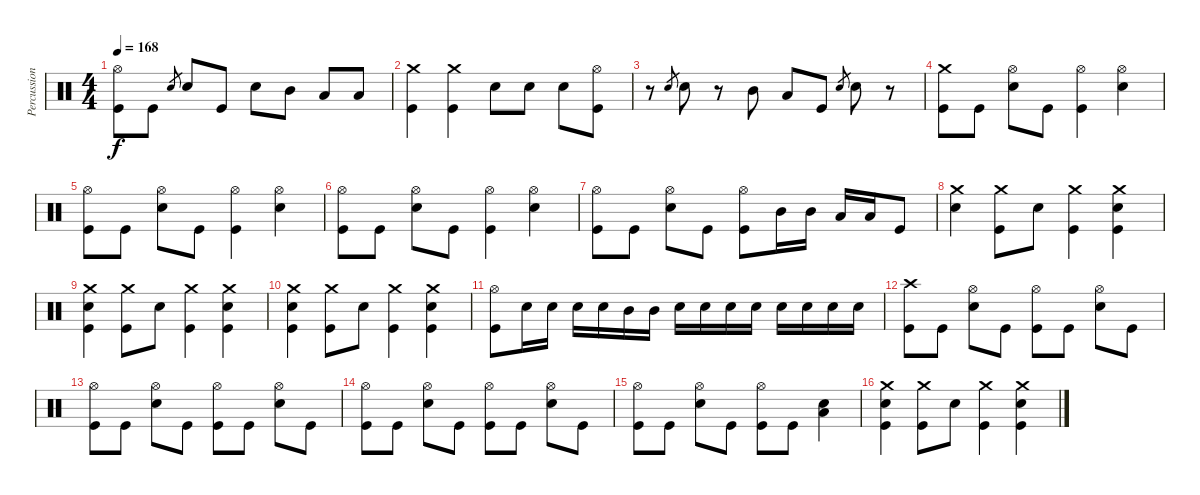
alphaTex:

\track ("Percussion" "Percussion") {instrument percussion}
\staff {score}
\articulation defaults
\ts (4 4)
\tempo 168
\clef neutral
\ks c
("Hi-Hat (open)" "Kick (hit)").8{dy f} "Kick (hit)".8 "Electric Snare (hit)".8{gr} "Electric Snare (hit)".8 "Kick (hit)".8 "Electric Snare (hit)".8 "Mid Tom (hit)".8 "Low Tom (hit)".8 "Low Tom (hit)".8 |
("Crash medium (hit)" "Kick (hit)").4 ("Crash medium (hit)" "Kick (hit)").4 "Electric Snare (hit)".8 "Electric Snare (hit)".8 "Electric Snare (hit)".8 ("Hi-Hat (open)" "Kick (hit)").8 |
r.8 "Electric Snare (hit)".8{gr} "Electric Snare (hit)".8 r.8 "Mid Tom (hit)".8 "Low Tom (hit)".8 "Kick (hit)".8 "Electric Snare (hit)".8{gr} "Electric Snare (hit)".8 r.8 |
("Crash medium (hit)" "Kick (hit)").8 "Kick (hit)".8 ("Hi-Hat (open)" "Electric Snare (hit)").8 "Kick (hit)".8 ("Hi-Hat (open)" "Kick (hit)").4 ("Hi-Hat (open)" "Electric Snare (hit)").4 |
("Hi-Hat (open)" "Kick (hit)").8 "Kick (hit)".8 ("Hi-Hat (open)" "Electric Snare (hit)").8 "Kick (hit)".8 ("Hi-Hat (open)" "Kick (hit)").4 ("Hi-Hat (open)" "Electric Snare (hit)").4 |
("Hi-Hat (open)" "Kick (hit)").8 "Kick (hit)".8 ("Hi-Hat (open)" "Electric Snare (hit)").8 "Kick (hit)".8 ("Hi-Hat (open)" "Kick (hit)").4 ("Hi-Hat (open)" "Electric Snare (hit)").4 |
("Hi-Hat (open)" "Kick (hit)").8 "Kick (hit)".8 ("Hi-Hat (open)" "Electric Snare (hit)").8 "Kick (hit)".8 ("Hi-Hat (open)" "Kick (hit)").8 "Mid Tom (hit)".16 "Mid Tom (hit)".16 "Low Tom (hit)".16 "Low Tom (hit)".16 "Kick (hit)".8 |
("Crash medium (hit)" "Electric Snare (hit)").4 ("Crash medium (hit)" "Kick (hit)").8 "Electric Snare (hit)".8 ("Crash medium (hit)" "Kick (hit)").4 ("Crash medium (hit)" "Electric Snare (hit)" "Kick (hit)").4 |
("Crash medium (hit)" "Electric Snare (hit)" "Kick (hit)").4 ("Crash medium (hit)" "Kick (hit)").8 "Electric Snare (hit)".8 ("Crash medium (hit)" "Kick (hit)").4 ("Crash medium (hit)" "Electric Snare (hit)" "Kick (hit)").4 |
("Crash medium (hit)" "Electric Snare (hit)" "Kick (hit)").4 ("Crash medium (hit)" "Kick (hit)").8 "Electric Snare (hit)".8 ("Crash medium (hit)" "Kick (hit)").4 ("Crash medium (hit)" "Electric Snare (hit)" "Kick (hit)").4 |
("Hi-Hat (open)" "Kick (hit)").8 "Electric Snare (hit)".16 "Electric Snare (hit)".16 "Electric Snare (hit)".16 "Electric Snare (hit)".16 "Mid Tom (hit)".16 "Mid Tom (hit)".16 "Electric Snare (hit)".16 "Electric Snare (hit)".16 "Electric Snare (hit)".16 "Electric Snare (hit)".16 "Electric Snare (hit)".16 "Electric Snare (hit)".16 "Electric Snare (hit)".16 "Electric Snare (hit)".16 |
("Crash high (hit)" "Kick (hit)").8 "Kick (hit)".8 ("Hi-Hat (open)" "Electric Snare (hit)").8 "Kick (hit)".8 ("Hi-Hat (open)" "Kick (hit)").8 "Kick (hit)".8 ("Hi-Hat (open)" "Electric Snare (hit)").8 "Kick (hit)".8 |
("Hi-Hat (open)" "Kick (hit)").8 "Kick (hit)".8 ("Hi-Hat (open)" "Electric Snare (hit)").8 "Kick (hit)".8 ("Hi-Hat (open)" "Kick (hit)").8 "Kick (hit)".8 ("Hi-Hat (open)" "Electric Snare (hit)").8 "Kick (hit)".8 |
("Hi-Hat (open)" "Kick (hit)").8 "Kick (hit)".8 ("Hi-Hat (open)" "Electric Snare (hit)").8 "Kick (hit)".8 ("Hi-Hat (open)" "Kick (hit)").8 "Kick (hit)".8 ("Hi-Hat (open)" "Electric Snare (hit)").8 "Kick (hit)".8 |
("Hi-Hat (open)" "Kick (hit)").8 "Kick (hit)".8 ("Hi-Hat (open)" "Electric Snare (hit)").8 "Kick (hit)".8 ("Hi-Hat (open)" "Kick (hit)").8 "Kick (hit)".8 ("Low Tom (hit)" "Electric Snare (hit)").4 |
("Crash medium (hit)" "Electric Snare (hit)" "Kick (hit)").4 ("Crash medium (hit)" "Kick (hit)").8 "Electric Snare (hit)".8 ("Crash medium (hit)" "Kick (hit)").4 ("Crash medium (hit)" "Electric Snare (hit)" "Kick (hit)").4
